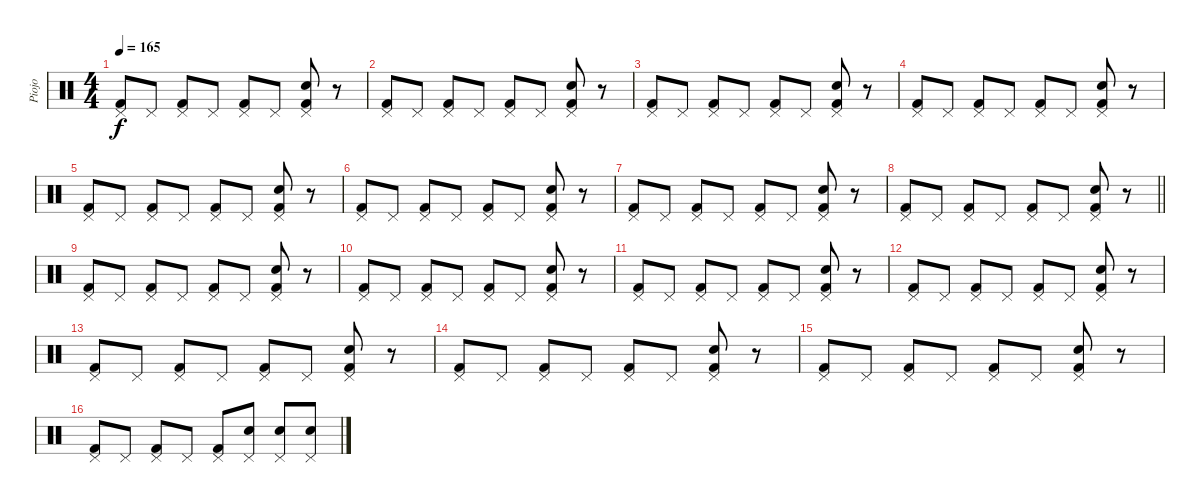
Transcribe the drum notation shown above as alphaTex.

\track ("Piojo" "Piojo") {instrument percussion}
\staff {score}
\articulation defaults
\ts (4 4)
\tempo 165
\clef neutral
\ks c
("Pedal Hi-Hat (hit)" "Kick (hit) 2").8{dy f} "Pedal Hi-Hat (hit)".8 ("Pedal Hi-Hat (hit)" "Kick (hit) 2").8 "Pedal Hi-Hat (hit)".8 ("Pedal Hi-Hat (hit)" "Kick (hit) 2").8 "Pedal Hi-Hat (hit)".8 ("Pedal Hi-Hat (hit)" "Electric Snare (hit)" "Kick (hit) 2").8 r.8 |
("Pedal Hi-Hat (hit)" "Kick (hit) 2").8 "Pedal Hi-Hat (hit)".8 ("Pedal Hi-Hat (hit)" "Kick (hit) 2").8 "Pedal Hi-Hat (hit)".8 ("Pedal Hi-Hat (hit)" "Kick (hit) 2").8 "Pedal Hi-Hat (hit)".8 ("Pedal Hi-Hat (hit)" "Electric Snare (hit)" "Kick (hit) 2").8 r.8 |
("Pedal Hi-Hat (hit)" "Kick (hit) 2").8 "Pedal Hi-Hat (hit)".8 ("Pedal Hi-Hat (hit)" "Kick (hit) 2").8 "Pedal Hi-Hat (hit)".8 ("Pedal Hi-Hat (hit)" "Kick (hit) 2").8 "Pedal Hi-Hat (hit)".8 ("Pedal Hi-Hat (hit)" "Electric Snare (hit)" "Kick (hit) 2").8 r.8 |
("Pedal Hi-Hat (hit)" "Kick (hit) 2").8 "Pedal Hi-Hat (hit)".8 ("Pedal Hi-Hat (hit)" "Kick (hit) 2").8 "Pedal Hi-Hat (hit)".8 ("Pedal Hi-Hat (hit)" "Kick (hit) 2").8 "Pedal Hi-Hat (hit)".8 ("Pedal Hi-Hat (hit)" "Electric Snare (hit)" "Kick (hit) 2").8 r.8 |
("Pedal Hi-Hat (hit)" "Kick (hit) 2").8 "Pedal Hi-Hat (hit)".8 ("Pedal Hi-Hat (hit)" "Kick (hit) 2").8 "Pedal Hi-Hat (hit)".8 ("Pedal Hi-Hat (hit)" "Kick (hit) 2").8 "Pedal Hi-Hat (hit)".8 ("Pedal Hi-Hat (hit)" "Electric Snare (hit)" "Kick (hit) 2").8 r.8 |
("Pedal Hi-Hat (hit)" "Kick (hit) 2").8 "Pedal Hi-Hat (hit)".8 ("Pedal Hi-Hat (hit)" "Kick (hit) 2").8 "Pedal Hi-Hat (hit)".8 ("Pedal Hi-Hat (hit)" "Kick (hit) 2").8 "Pedal Hi-Hat (hit)".8 ("Pedal Hi-Hat (hit)" "Electric Snare (hit)" "Kick (hit) 2").8 r.8 |
("Pedal Hi-Hat (hit)" "Kick (hit) 2").8 "Pedal Hi-Hat (hit)".8 ("Pedal Hi-Hat (hit)" "Kick (hit) 2").8 "Pedal Hi-Hat (hit)".8 ("Pedal Hi-Hat (hit)" "Kick (hit) 2").8 "Pedal Hi-Hat (hit)".8 ("Pedal Hi-Hat (hit)" "Electric Snare (hit)" "Kick (hit) 2").8 r.8 |
\barLineRight lightlight
("Pedal Hi-Hat (hit)" "Kick (hit) 2").8 "Pedal Hi-Hat (hit)".8 ("Pedal Hi-Hat (hit)" "Kick (hit) 2").8 "Pedal Hi-Hat (hit)".8 ("Pedal Hi-Hat (hit)" "Kick (hit) 2").8 "Pedal Hi-Hat (hit)".8 ("Pedal Hi-Hat (hit)" "Electric Snare (hit)" "Kick (hit) 2").8 r.8 |
("Pedal Hi-Hat (hit)" "Kick (hit) 2").8 "Pedal Hi-Hat (hit)".8 ("Pedal Hi-Hat (hit)" "Kick (hit) 2").8 "Pedal Hi-Hat (hit)".8 ("Pedal Hi-Hat (hit)" "Kick (hit) 2").8 "Pedal Hi-Hat (hit)".8 ("Pedal Hi-Hat (hit)" "Electric Snare (hit)" "Kick (hit) 2").8 r.8 |
("Pedal Hi-Hat (hit)" "Kick (hit) 2").8 "Pedal Hi-Hat (hit)".8 ("Pedal Hi-Hat (hit)" "Kick (hit) 2").8 "Pedal Hi-Hat (hit)".8 ("Pedal Hi-Hat (hit)" "Kick (hit) 2").8 "Pedal Hi-Hat (hit)".8 ("Pedal Hi-Hat (hit)" "Electric Snare (hit)" "Kick (hit) 2").8 r.8 |
("Pedal Hi-Hat (hit)" "Kick (hit) 2").8 "Pedal Hi-Hat (hit)".8 ("Pedal Hi-Hat (hit)" "Kick (hit) 2").8 "Pedal Hi-Hat (hit)".8 ("Pedal Hi-Hat (hit)" "Kick (hit) 2").8 "Pedal Hi-Hat (hit)".8 ("Pedal Hi-Hat (hit)" "Electric Snare (hit)" "Kick (hit) 2").8 r.8 |
("Pedal Hi-Hat (hit)" "Kick (hit) 2").8 "Pedal Hi-Hat (hit)".8 ("Pedal Hi-Hat (hit)" "Kick (hit) 2").8 "Pedal Hi-Hat (hit)".8 ("Pedal Hi-Hat (hit)" "Kick (hit) 2").8 "Pedal Hi-Hat (hit)".8 ("Pedal Hi-Hat (hit)" "Electric Snare (hit)" "Kick (hit) 2").8 r.8 |
("Pedal Hi-Hat (hit)" "Kick (hit) 2").8 "Pedal Hi-Hat (hit)".8 ("Pedal Hi-Hat (hit)" "Kick (hit) 2").8 "Pedal Hi-Hat (hit)".8 ("Pedal Hi-Hat (hit)" "Kick (hit) 2").8 "Pedal Hi-Hat (hit)".8 ("Pedal Hi-Hat (hit)" "Electric Snare (hit)" "Kick (hit) 2").8 r.8 |
("Pedal Hi-Hat (hit)" "Kick (hit) 2").8 "Pedal Hi-Hat (hit)".8 ("Pedal Hi-Hat (hit)" "Kick (hit) 2").8 "Pedal Hi-Hat (hit)".8 ("Pedal Hi-Hat (hit)" "Kick (hit) 2").8 "Pedal Hi-Hat (hit)".8 ("Pedal Hi-Hat (hit)" "Electric Snare (hit)" "Kick (hit) 2").8 r.8 |
("Pedal Hi-Hat (hit)" "Kick (hit) 2").8 "Pedal Hi-Hat (hit)".8 ("Pedal Hi-Hat (hit)" "Kick (hit) 2").8 "Pedal Hi-Hat (hit)".8 ("Pedal Hi-Hat (hit)" "Kick (hit) 2").8 "Pedal Hi-Hat (hit)".8 ("Pedal Hi-Hat (hit)" "Electric Snare (hit)" "Kick (hit) 2").8 r.8 |
("Pedal Hi-Hat (hit)" "Kick (hit) 2").8 "Pedal Hi-Hat (hit)".8 ("Pedal Hi-Hat (hit)" "Kick (hit) 2").8 "Pedal Hi-Hat (hit)".8 ("Pedal Hi-Hat (hit)" "Kick (hit) 2").8 ("Pedal Hi-Hat (hit)" "Electric Snare (hit)").8 ("Pedal Hi-Hat (hit)" "Electric Snare (hit)").8 ("Pedal Hi-Hat (hit)" "Electric Snare (hit)").8
